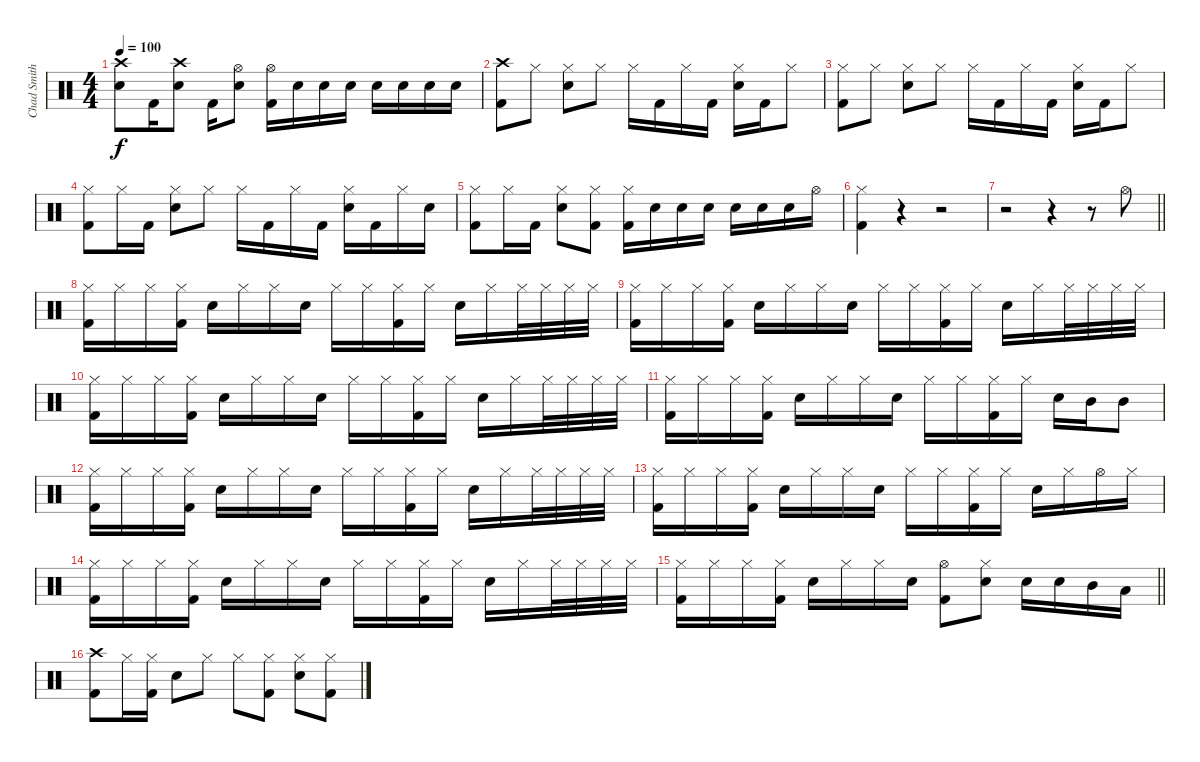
\track ("Chad Smith" "Chad Smith") {instrument percussion}
\staff {score}
\articulation defaults
\ts (4 4)
\tempo 100
\clef neutral
\ks c
("Crash high (hit)" "Snare (hit) 2").8{dy f} "Kick (hit) 2".16 ("Crash high (hit)" "Snare (hit) 2").8 "Kick (hit) 2".16 ("Hi-Hat (open)" "Snare (hit) 2").8 ("Hi-Hat (open)" "Kick (hit) 2").16 "Snare (hit) 2".16 "Snare (hit) 2".16 "Snare (hit) 2".16 "Snare (hit) 2".16 "Snare (hit) 2".16 "Snare (hit) 2".16 "Snare (hit) 2".16 |
("Crash high (hit)" "Kick (hit) 2").8 "Hi-Hat (closed)".8 ("Hi-Hat (closed)" "Snare (hit) 2").8 "Hi-Hat (closed)".8 "Hi-Hat (closed)".16 "Kick (hit) 2".16 "Hi-Hat (closed)".16 "Kick (hit) 2".16 ("Hi-Hat (closed)" "Snare (hit) 2").16 "Kick (hit) 2".16 "Hi-Hat (closed)".8 |
("Hi-Hat (closed)" "Kick (hit) 2").8 "Hi-Hat (closed)".8 ("Hi-Hat (closed)" "Snare (hit) 2").8 "Hi-Hat (closed)".8 "Hi-Hat (closed)".16 "Kick (hit) 2".16 "Hi-Hat (closed)".16 "Kick (hit) 2".16 ("Hi-Hat (closed)" "Snare (hit) 2").16 "Kick (hit) 2".16 "Hi-Hat (closed)".8 |
("Hi-Hat (closed)" "Kick (hit) 2").8 "Hi-Hat (closed)".16 "Kick (hit) 2".16 ("Hi-Hat (closed)" "Snare (hit) 2").8 "Hi-Hat (closed)".8 "Hi-Hat (closed)".16 "Kick (hit) 2".16 "Hi-Hat (closed)".16 "Kick (hit) 2".16 ("Hi-Hat (closed)" "Snare (hit) 2").16 "Kick (hit) 2".16 "Hi-Hat (closed)".16 "Snare (hit) 2".16 |
("Hi-Hat (closed)" "Kick (hit) 2").8 "Hi-Hat (closed)".16 "Kick (hit) 2".16 ("Hi-Hat (closed)" "Snare (hit) 2").8 ("Hi-Hat (closed)" "Kick (hit) 2").8 ("Hi-Hat (closed)" "Kick (hit) 2").16 "Snare (hit) 2".16 "Snare (hit) 2".16 "Snare (hit) 2".16 "Snare (hit) 2".16 "Snare (hit) 2".16 "Snare (hit) 2".16 "Hi-Hat (open)".16 |
("Hi-Hat (closed)" "Kick (hit) 2").4 r.4 r.2 |
\barLineRight lightlight
r.2 r.4 r.8 "Hi-Hat (open)".8 |
("Hi-Hat (closed)" "Kick (hit) 2").16 "Hi-Hat (closed)".16 "Hi-Hat (closed)".16 ("Hi-Hat (closed)" "Kick (hit) 2").16 "Snare (hit) 2".16 "Hi-Hat (closed)".16 "Hi-Hat (closed)".16 "Snare (hit) 2".16 "Hi-Hat (closed)".16 "Hi-Hat (closed)".16 ("Hi-Hat (closed)" "Kick (hit) 2").16 "Hi-Hat (closed)".16 "Snare (hit) 2".16 "Hi-Hat (closed)".16 "Hi-Hat (closed)".32 "Hi-Hat (closed)".32 "Hi-Hat (closed)".32 "Hi-Hat (closed)".32 |
("Hi-Hat (closed)" "Kick (hit) 2").16 "Hi-Hat (closed)".16 "Hi-Hat (closed)".16 ("Hi-Hat (closed)" "Kick (hit) 2").16 "Snare (hit) 2".16 "Hi-Hat (closed)".16 "Hi-Hat (closed)".16 "Snare (hit) 2".16 "Hi-Hat (closed)".16 "Hi-Hat (closed)".16 ("Hi-Hat (closed)" "Kick (hit) 2").16 "Hi-Hat (closed)".16 "Snare (hit) 2".16 "Hi-Hat (closed)".16 "Hi-Hat (closed)".32 "Hi-Hat (closed)".32 "Hi-Hat (closed)".32 "Hi-Hat (closed)".32 |
("Hi-Hat (closed)" "Kick (hit) 2").16 "Hi-Hat (closed)".16 "Hi-Hat (closed)".16 ("Hi-Hat (closed)" "Kick (hit) 2").16 "Snare (hit) 2".16 "Hi-Hat (closed)".16 "Hi-Hat (closed)".16 "Snare (hit) 2".16 "Hi-Hat (closed)".16 "Hi-Hat (closed)".16 ("Hi-Hat (closed)" "Kick (hit) 2").16 "Hi-Hat (closed)".16 "Snare (hit) 2".16 "Hi-Hat (closed)".16 "Hi-Hat (closed)".32 "Hi-Hat (closed)".32 "Hi-Hat (closed)".32 "Hi-Hat (closed)".32 |
("Hi-Hat (closed)" "Kick (hit) 2").16 "Hi-Hat (closed)".16 "Hi-Hat (closed)".16 ("Hi-Hat (closed)" "Kick (hit) 2").16 "Snare (hit) 2".16 "Hi-Hat (closed)".16 "Hi-Hat (closed)".16 "Snare (hit) 2".16 "Hi-Hat (closed)".16 "Hi-Hat (closed)".16 ("Hi-Hat (closed)" "Kick (hit) 2").16 "Hi-Hat (closed)".16 "Snare (hit) 2".16 "Mid Tom (hit)".16 "Mid Tom (hit)".8 |
("Hi-Hat (closed)" "Kick (hit) 2").16 "Hi-Hat (closed)".16 "Hi-Hat (closed)".16 ("Hi-Hat (closed)" "Kick (hit) 2").16 "Snare (hit) 2".16 "Hi-Hat (closed)".16 "Hi-Hat (closed)".16 "Snare (hit) 2".16 "Hi-Hat (closed)".16 "Hi-Hat (closed)".16 ("Hi-Hat (closed)" "Kick (hit) 2").16 "Hi-Hat (closed)".16 "Snare (hit) 2".16 "Hi-Hat (closed)".16 "Hi-Hat (closed)".32 "Hi-Hat (closed)".32 "Hi-Hat (closed)".32 "Hi-Hat (closed)".32 |
("Hi-Hat (closed)" "Kick (hit) 2").16 "Hi-Hat (closed)".16 "Hi-Hat (closed)".16 ("Hi-Hat (closed)" "Kick (hit) 2").16 "Snare (hit) 2".16 "Hi-Hat (closed)".16 "Hi-Hat (closed)".16 "Snare (hit) 2".16 "Hi-Hat (closed)".16 "Hi-Hat (closed)".16 ("Hi-Hat (closed)" "Kick (hit) 2").16 "Hi-Hat (closed)".16 "Snare (hit) 2".16 "Hi-Hat (closed)".16 "Hi-Hat (open)".16 "Hi-Hat (closed)".16 |
("Hi-Hat (closed)" "Kick (hit) 2").16 "Hi-Hat (closed)".16 "Hi-Hat (closed)".16 ("Hi-Hat (closed)" "Kick (hit) 2").16 "Snare (hit) 2".16 "Hi-Hat (closed)".16 "Hi-Hat (closed)".16 "Snare (hit) 2".16 "Hi-Hat (closed)".16 "Hi-Hat (closed)".16 ("Hi-Hat (closed)" "Kick (hit) 2").16 "Hi-Hat (closed)".16 "Snare (hit) 2".16 "Hi-Hat (closed)".16 "Hi-Hat (closed)".32 "Hi-Hat (closed)".32 "Hi-Hat (closed)".32 "Hi-Hat (closed)".32 |
\barLineRight lightlight
("Hi-Hat (closed)" "Kick (hit) 2").16 "Hi-Hat (closed)".16 "Hi-Hat (closed)".16 ("Hi-Hat (closed)" "Kick (hit) 2").16 "Snare (hit) 2".16 "Hi-Hat (closed)".16 "Hi-Hat (closed)".16 "Snare (hit) 2".16 ("Hi-Hat (open)" "Kick (hit) 2").8 ("Hi-Hat (closed)" "Snare (hit) 2").8 "Snare (hit) 2".16 "Snare (hit) 2".16 "Mid Tom (hit)".16 "Low Tom (hit)".16 |
("Crash high (hit)" "Kick (hit) 2").8 "Hi-Hat (closed)".16 ("Hi-Hat (closed)" "Kick (hit) 2").16 "Snare (hit) 2".8 "Hi-Hat (closed)".8 "Hi-Hat (closed)".8 ("Hi-Hat (closed)" "Kick (hit) 2").8 ("Hi-Hat (closed)" "Snare (hit) 2").8 ("Hi-Hat (closed)" "Kick (hit) 2").8
